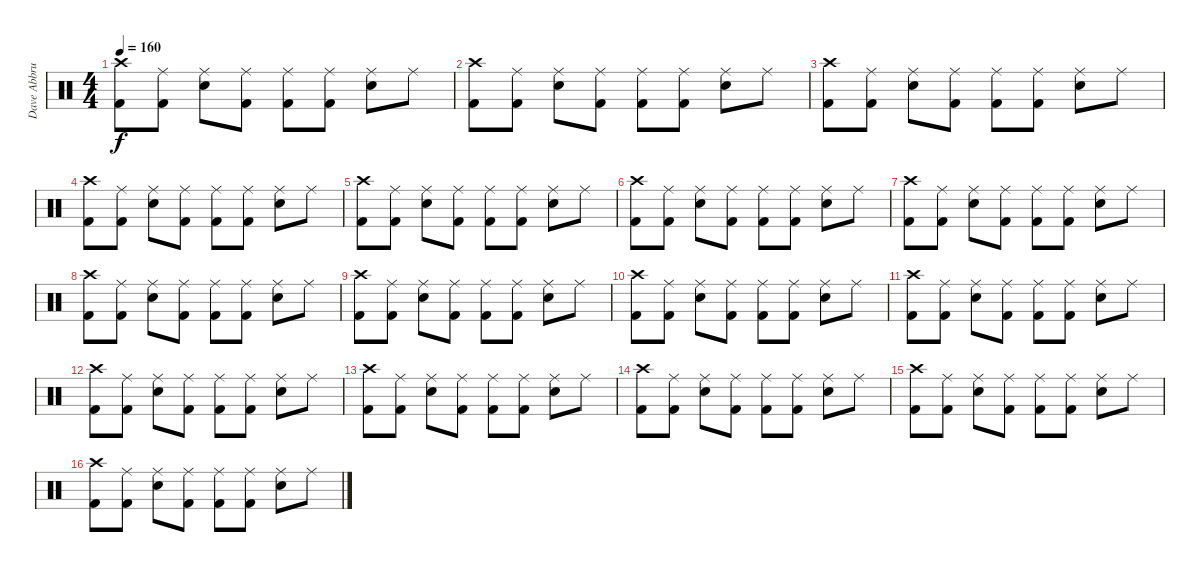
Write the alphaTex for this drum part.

\track ("Dave Abbruzzese" "Dave Abbru") {instrument percussion}
\staff {score}
\articulation defaults
\ts (4 4)
\tempo 160
\clef neutral
\ks c
("Crash high (hit)" "Kick (hit) 2").8{dy f} ("Ride (middle)" "Kick (hit) 2").8 ("Ride (middle)" "Snare (hit) 2").8 ("Ride (middle)" "Kick (hit) 2").8 ("Ride (middle)" "Kick (hit) 2").8 ("Ride (middle)" "Kick (hit) 2").8 ("Ride (middle)" "Snare (hit) 2").8 "Ride (middle)".8 |
("Crash high (hit)" "Kick (hit) 2").8 ("Ride (middle)" "Kick (hit) 2").8 ("Ride (middle)" "Snare (hit) 2").8 ("Ride (middle)" "Kick (hit) 2").8 ("Ride (middle)" "Kick (hit) 2").8 ("Ride (middle)" "Kick (hit) 2").8 ("Ride (middle)" "Snare (hit) 2").8 "Ride (middle)".8 |
("Crash high (hit)" "Kick (hit) 2").8 ("Ride (middle)" "Kick (hit) 2").8 ("Ride (middle)" "Snare (hit) 2").8 ("Ride (middle)" "Kick (hit) 2").8 ("Ride (middle)" "Kick (hit) 2").8 ("Ride (middle)" "Kick (hit) 2").8 ("Ride (middle)" "Snare (hit) 2").8 "Ride (middle)".8 |
("Crash high (hit)" "Kick (hit) 2").8 ("Ride (middle)" "Kick (hit) 2").8 ("Ride (middle)" "Snare (hit) 2").8 ("Ride (middle)" "Kick (hit) 2").8 ("Ride (middle)" "Kick (hit) 2").8 ("Ride (middle)" "Kick (hit) 2").8 ("Ride (middle)" "Snare (hit) 2").8 "Ride (middle)".8 |
("Crash high (hit)" "Kick (hit) 2").8 ("Ride (middle)" "Kick (hit) 2").8 ("Ride (middle)" "Snare (hit) 2").8 ("Ride (middle)" "Kick (hit) 2").8 ("Ride (middle)" "Kick (hit) 2").8 ("Ride (middle)" "Kick (hit) 2").8 ("Ride (middle)" "Snare (hit) 2").8 "Ride (middle)".8 |
("Crash high (hit)" "Kick (hit) 2").8 ("Ride (middle)" "Kick (hit) 2").8 ("Ride (middle)" "Snare (hit) 2").8 ("Ride (middle)" "Kick (hit) 2").8 ("Ride (middle)" "Kick (hit) 2").8 ("Ride (middle)" "Kick (hit) 2").8 ("Ride (middle)" "Snare (hit) 2").8 "Ride (middle)".8 |
("Crash high (hit)" "Kick (hit) 2").8 ("Ride (middle)" "Kick (hit) 2").8 ("Ride (middle)" "Snare (hit) 2").8 ("Ride (middle)" "Kick (hit) 2").8 ("Ride (middle)" "Kick (hit) 2").8 ("Ride (middle)" "Kick (hit) 2").8 ("Ride (middle)" "Snare (hit) 2").8 "Ride (middle)".8 |
("Crash high (hit)" "Kick (hit) 2").8 ("Ride (middle)" "Kick (hit) 2").8 ("Ride (middle)" "Snare (hit) 2").8 ("Ride (middle)" "Kick (hit) 2").8 ("Ride (middle)" "Kick (hit) 2").8 ("Ride (middle)" "Kick (hit) 2").8 ("Ride (middle)" "Snare (hit) 2").8 "Ride (middle)".8 |
("Crash high (hit)" "Kick (hit) 2").8 ("Ride (middle)" "Kick (hit) 2").8 ("Ride (middle)" "Snare (hit) 2").8 ("Ride (middle)" "Kick (hit) 2").8 ("Ride (middle)" "Kick (hit) 2").8 ("Ride (middle)" "Kick (hit) 2").8 ("Ride (middle)" "Snare (hit) 2").8 "Ride (middle)".8 |
("Crash high (hit)" "Kick (hit) 2").8 ("Ride (middle)" "Kick (hit) 2").8 ("Ride (middle)" "Snare (hit) 2").8 ("Ride (middle)" "Kick (hit) 2").8 ("Ride (middle)" "Kick (hit) 2").8 ("Ride (middle)" "Kick (hit) 2").8 ("Ride (middle)" "Snare (hit) 2").8 "Ride (middle)".8 |
("Crash high (hit)" "Kick (hit) 2").8 ("Ride (middle)" "Kick (hit) 2").8 ("Ride (middle)" "Snare (hit) 2").8 ("Ride (middle)" "Kick (hit) 2").8 ("Ride (middle)" "Kick (hit) 2").8 ("Ride (middle)" "Kick (hit) 2").8 ("Ride (middle)" "Snare (hit) 2").8 "Ride (middle)".8 |
("Crash high (hit)" "Kick (hit) 2").8 ("Ride (middle)" "Kick (hit) 2").8 ("Ride (middle)" "Snare (hit) 2").8 ("Ride (middle)" "Kick (hit) 2").8 ("Ride (middle)" "Kick (hit) 2").8 ("Ride (middle)" "Kick (hit) 2").8 ("Ride (middle)" "Snare (hit) 2").8 "Ride (middle)".8 |
("Crash high (hit)" "Kick (hit) 2").8 ("Ride (middle)" "Kick (hit) 2").8 ("Ride (middle)" "Snare (hit) 2").8 ("Ride (middle)" "Kick (hit) 2").8 ("Ride (middle)" "Kick (hit) 2").8 ("Ride (middle)" "Kick (hit) 2").8 ("Ride (middle)" "Snare (hit) 2").8 "Ride (middle)".8 |
("Crash high (hit)" "Kick (hit) 2").8 ("Ride (middle)" "Kick (hit) 2").8 ("Ride (middle)" "Snare (hit) 2").8 ("Ride (middle)" "Kick (hit) 2").8 ("Ride (middle)" "Kick (hit) 2").8 ("Ride (middle)" "Kick (hit) 2").8 ("Ride (middle)" "Snare (hit) 2").8 "Ride (middle)".8 |
("Crash high (hit)" "Kick (hit) 2").8 ("Ride (middle)" "Kick (hit) 2").8 ("Ride (middle)" "Snare (hit) 2").8 ("Ride (middle)" "Kick (hit) 2").8 ("Ride (middle)" "Kick (hit) 2").8 ("Ride (middle)" "Kick (hit) 2").8 ("Ride (middle)" "Snare (hit) 2").8 "Ride (middle)".8 |
("Crash high (hit)" "Kick (hit) 2").8 ("Ride (middle)" "Kick (hit) 2").8 ("Ride (middle)" "Snare (hit) 2").8 ("Ride (middle)" "Kick (hit) 2").8 ("Ride (middle)" "Kick (hit) 2").8 ("Ride (middle)" "Kick (hit) 2").8 ("Ride (middle)" "Snare (hit) 2").8 "Ride (middle)".8
